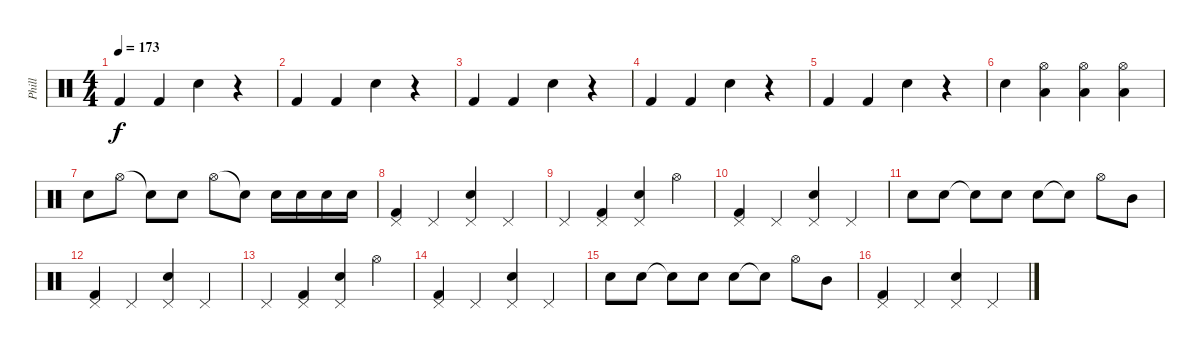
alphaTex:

\track ("Phill" "Phill") {instrument percussion}
\staff {score}
\articulation defaults
\ts (4 4)
\tempo 173
\clef neutral
\ks c "Kick (hit) 2".4{dy f} "Kick (hit) 2".4 "Electric Snare (hit)".4
r.4 |
"Kick (hit) 2".4 "Kick (hit) 2".4 "Electric Snare (hit)".4 r.4 |
"Kick (hit) 2".4 "Kick (hit) 2".4 "Electric Snare (hit)".4 r.4 |
"Kick (hit) 2".4 "Kick (hit) 2".4 "Electric Snare (hit)".4 r.4 |
"Kick (hit) 2".4 "Kick (hit) 2".4 "Electric Snare (hit)".4 r.4 |
"Electric Snare (hit)".4 ("Hi-Hat (open)" "Low Tom (hit)").4 ("Hi-Hat (open)" "Low Tom (hit)").4 ("Hi-Hat (open)" "Low Tom (hit)").4 |
"Electric Snare (hit)".8 "Hi-Hat (open)".8 "Snare (hit)"{t}.8 "Electric Snare (hit)".8 "Hi-Hat (open)".8 "Snare (hit)"{t}.8 "Electric Snare (hit)".16 "Electric Snare (hit)".16 "Electric Snare (hit)".16 "Electric Snare (hit)".16 |
("Pedal Hi-Hat (hit)" "Kick (hit) 2").4 "Pedal Hi-Hat (hit)".4 ("Pedal Hi-Hat (hit)" "Electric Snare (hit)").4 "Pedal Hi-Hat (hit)".4 |
"Pedal Hi-Hat (hit)".4 ("Pedal Hi-Hat (hit)" "Kick (hit) 2").4 ("Pedal Hi-Hat (hit)" "Electric Snare (hit)").4 "Hi-Hat (open)".4 |
("Pedal Hi-Hat (hit)" "Kick (hit) 2").4 "Pedal Hi-Hat (hit)".4 ("Pedal Hi-Hat (hit)" "Electric Snare (hit)").4 "Pedal Hi-Hat (hit)".4 |
"Electric Snare (hit)".8 "Electric Snare (hit)".8 "Snare (hit)"{t}.8 "Electric Snare (hit)".8 "Electric Snare (hit)".8 "Snare (hit)"{t}.8 "Hi-Hat (open)".8 "Mid Tom (hit)".8 |
("Pedal Hi-Hat (hit)" "Kick (hit) 2").4 "Pedal Hi-Hat (hit)".4 ("Pedal Hi-Hat (hit)" "Electric Snare (hit)").4 "Pedal Hi-Hat (hit)".4 |
"Pedal Hi-Hat (hit)".4 ("Pedal Hi-Hat (hit)" "Kick (hit) 2").4 ("Pedal Hi-Hat (hit)" "Electric Snare (hit)").4 "Hi-Hat (open)".4 |
("Pedal Hi-Hat (hit)" "Kick (hit) 2").4 "Pedal Hi-Hat (hit)".4 ("Pedal Hi-Hat (hit)" "Electric Snare (hit)").4 "Pedal Hi-Hat (hit)".4 |
"Electric Snare (hit)".8 "Electric Snare (hit)".8 "Snare (hit)"{t}.8 "Electric Snare (hit)".8 "Electric Snare (hit)".8 "Snare (hit)"{t}.8 "Hi-Hat (open)".8 "Mid Tom (hit)".8 |
("Pedal Hi-Hat (hit)" "Kick (hit) 2").4 "Pedal Hi-Hat (hit)".4 ("Pedal Hi-Hat (hit)" "Electric Snare (hit)").4 "Pedal Hi-Hat (hit)".4
